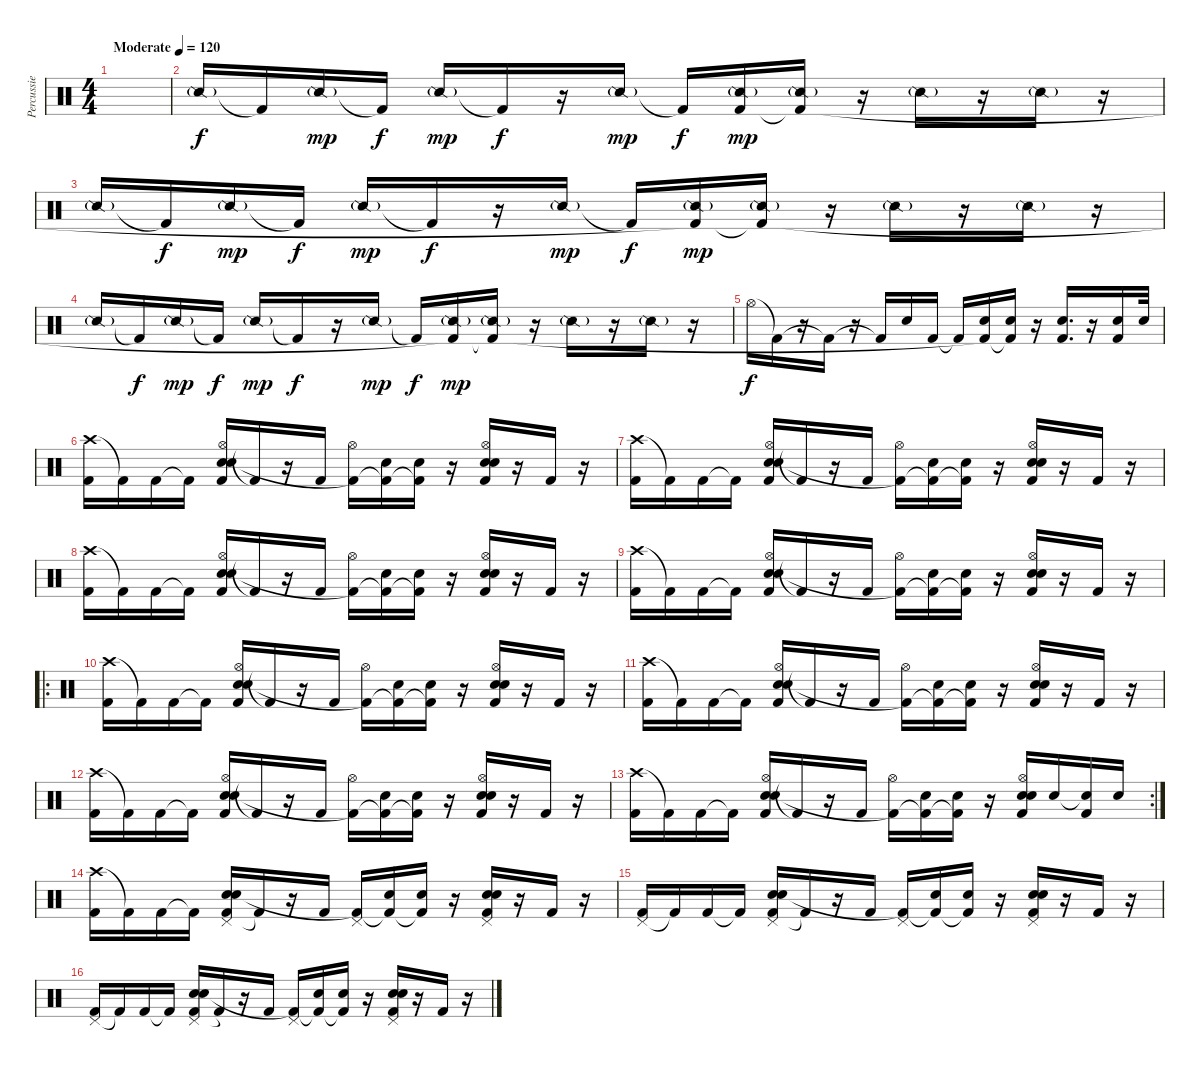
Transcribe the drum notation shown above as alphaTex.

\track ("Percussie" "Percussie") {instrument percussion}
\staff {score}
\articulation defaults
\ts (4 4)
\tempo (120 "Moderate")
\clef neutral
\ks c
|
"Snare (side stick) 2"{g}.16 "Kick (hit) 2"{t}.16{dy f} "Snare (side stick) 2"{g}.16{dy mp} "Kick (hit) 2"{t}.16{dy f} "Snare (side stick) 2"{g}.16{dy mp} "Kick (hit) 2"{t}.16{dy f} r.16 "Snare (side stick) 2"{g}.16{dy mp} "Kick (hit) 2"{t}.16{dy f} ("Snare (side stick) 2"{g} "Kick (hit) 2").16{dy mp} ("Snare (side stick) 2"{g} "Kick (hit) 2"{t}).16 r.16 "Snare (side stick) 2"{g}.16 r.16 "Snare (side stick) 2"{g}.16 r.16 |
"Snare (side stick) 2"{g}.16 "Kick (hit) 2"{t}.16{dy f} "Snare (side stick) 2"{g}.16{dy mp} "Kick (hit) 2"{t}.16{dy f} "Snare (side stick) 2"{g}.16{dy mp} "Kick (hit) 2"{t}.16{dy f} r.16 "Snare (side stick) 2"{g}.16{dy mp} "Kick (hit) 2"{t}.16{dy f} ("Snare (side stick) 2"{g} "Kick (hit) 2"{t}).16{dy mp} ("Snare (side stick) 2"{g} "Kick (hit) 2"{t}).16 r.16 "Snare (side stick) 2"{g}.16 r.16 "Snare (side stick) 2"{g}.16 r.16 |
"Snare (side stick) 2"{g}.16 "Kick (hit) 2"{t}.16{dy f} "Snare (side stick) 2"{g}.16{dy mp} "Kick (hit) 2"{t}.16{dy f} "Snare (side stick) 2"{g}.16{dy mp} "Kick (hit) 2"{t}.16{dy f} r.16 "Snare (side stick) 2"{g}.16{dy mp} "Kick (hit) 2"{t}.16{dy f} ("Snare (side stick) 2"{g} "Kick (hit) 2"{t}).16{dy mp} ("Snare (side stick) 2"{g} "Kick (hit) 2"{t}).16 r.16 "Snare (side stick) 2"{g}.16 r.16 "Snare (side stick) 2"{g}.16 r.16 |
"Hi-Hat (open)".16{dy f} "Kick (hit) 2"{t}.16 r.16 "Kick (hit) 2"{t}.16 r.16 "Kick (hit) 2"{t}.16 "Electric Snare (hit)".16 "Kick (hit) 2".16 "Kick (hit) 2"{t}.16 ("Electric Snare (hit)" "Kick (hit) 2"{t}).16 ("Electric Snare (hit)" "Kick (hit) 2"{t}).16 r.16 ("Electric Snare (hit)" "Kick (hit) 2").16{d} r.16 ("Electric Snare (hit)" "Kick (hit) 2").16 "Electric Snare (hit)".32 |
("Crash high (hit)" "Kick (hit) 2").16 "Kick (hit) 2"{t}.16 "Kick (hit) 2".16 "Kick (hit) 2"{t}.16 ("Hi-Hat (open)" "Electric Snare (hit)" "Snare (hit) 2" "Kick (hit) 2").16 "Kick (hit) 2"{t}.16 r.16 "Kick (hit) 2".16 ("Hi-Hat (open)" "Kick (hit) 2"{t}).16 ("Snare (hit) 2" "Kick (hit) 2"{t}).16 ("Snare (hit) 2" "Kick (hit) 2"{t}).16 r.16 ("Hi-Hat (open)" "Electric Snare (hit)" "Snare (hit) 2" "Kick (hit) 2").16 r.16 "Kick (hit) 2".16 r.16 |
("Crash high (hit)" "Kick (hit) 2").16 "Kick (hit) 2"{t}.16 "Kick (hit) 2".16 "Kick (hit) 2"{t}.16 ("Hi-Hat (open)" "Electric Snare (hit)" "Snare (hit) 2" "Kick (hit) 2").16 "Kick (hit) 2"{t}.16 r.16 "Kick (hit) 2".16 ("Hi-Hat (open)" "Kick (hit) 2"{t}).16 ("Snare (hit) 2" "Kick (hit) 2"{t}).16 ("Snare (hit) 2" "Kick (hit) 2"{t}).16 r.16 ("Hi-Hat (open)" "Electric Snare (hit)" "Snare (hit) 2" "Kick (hit) 2").16 r.16 "Kick (hit) 2".16 r.16 |
("Crash high (hit)" "Kick (hit) 2").16 "Kick (hit) 2"{t}.16 "Kick (hit) 2".16 "Kick (hit) 2"{t}.16 ("Hi-Hat (open)" "Electric Snare (hit)" "Snare (hit) 2" "Kick (hit) 2").16 "Kick (hit) 2"{t}.16 r.16 "Kick (hit) 2".16 ("Hi-Hat (open)" "Kick (hit) 2"{t}).16 ("Snare (hit) 2" "Kick (hit) 2"{t}).16 ("Snare (hit) 2" "Kick (hit) 2"{t}).16 r.16 ("Hi-Hat (open)" "Electric Snare (hit)" "Snare (hit) 2" "Kick (hit) 2").16 r.16 "Kick (hit) 2".16 r.16 |
("Crash high (hit)" "Kick (hit) 2").16 "Kick (hit) 2"{t}.16 "Kick (hit) 2".16 "Kick (hit) 2"{t}.16 ("Hi-Hat (open)" "Electric Snare (hit)" "Snare (hit) 2" "Kick (hit) 2").16 "Kick (hit) 2"{t}.16 r.16 "Kick (hit) 2".16 ("Hi-Hat (open)" "Kick (hit) 2"{t}).16 ("Snare (hit) 2" "Kick (hit) 2"{t}).16 ("Snare (hit) 2" "Kick (hit) 2"{t}).16 r.16 ("Hi-Hat (open)" "Electric Snare (hit)" "Snare (hit) 2" "Kick (hit) 2").16 r.16 "Kick (hit) 2".16 r.16 |
\ro
("Crash high (hit)" "Kick (hit) 2").16 "Kick (hit) 2"{t}.16 "Kick (hit) 2".16 "Kick (hit) 2"{t}.16 ("Hi-Hat (open)" "Electric Snare (hit)" "Snare (hit) 2" "Kick (hit) 2").16 "Kick (hit) 2"{t}.16 r.16 "Kick (hit) 2".16 ("Hi-Hat (open)" "Kick (hit) 2"{t}).16 ("Snare (hit) 2" "Kick (hit) 2"{t}).16 ("Snare (hit) 2" "Kick (hit) 2"{t}).16 r.16 ("Hi-Hat (open)" "Electric Snare (hit)" "Snare (hit) 2" "Kick (hit) 2").16 r.16 "Kick (hit) 2".16 r.16 |
("Crash high (hit)" "Kick (hit) 2").16 "Kick (hit) 2"{t}.16 "Kick (hit) 2".16 "Kick (hit) 2"{t}.16 ("Hi-Hat (open)" "Electric Snare (hit)" "Snare (hit) 2" "Kick (hit) 2").16 "Kick (hit) 2"{t}.16 r.16 "Kick (hit) 2".16 ("Hi-Hat (open)" "Kick (hit) 2"{t}).16 ("Snare (hit) 2" "Kick (hit) 2"{t}).16 ("Snare (hit) 2" "Kick (hit) 2"{t}).16 r.16 ("Hi-Hat (open)" "Electric Snare (hit)" "Snare (hit) 2" "Kick (hit) 2").16 r.16 "Kick (hit) 2".16 r.16 |
("Crash high (hit)" "Kick (hit) 2").16 "Kick (hit) 2"{t}.16 "Kick (hit) 2".16 "Kick (hit) 2"{t}.16 ("Hi-Hat (open)" "Electric Snare (hit)" "Snare (hit) 2" "Kick (hit) 2").16 "Kick (hit) 2"{t}.16 r.16 "Kick (hit) 2".16 ("Hi-Hat (open)" "Kick (hit) 2"{t}).16 ("Snare (hit) 2" "Kick (hit) 2"{t}).16 ("Snare (hit) 2" "Kick (hit) 2"{t}).16 r.16 ("Hi-Hat (open)" "Electric Snare (hit)" "Snare (hit) 2" "Kick (hit) 2").16 r.16 "Kick (hit) 2".16 r.16 |
\rc 2
("Crash high (hit)" "Kick (hit) 2").16 "Kick (hit) 2"{t}.16 "Kick (hit) 2".16 "Kick (hit) 2"{t}.16 ("Hi-Hat (open)" "Electric Snare (hit)" "Snare (hit) 2" "Kick (hit) 2").16 "Kick (hit) 2"{t}.16 r.16 "Kick (hit) 2".16 ("Hi-Hat (open)" "Kick (hit) 2"{t}).16 ("Snare (hit) 2" "Kick (hit) 2"{t}).16 ("Snare (hit) 2" "Kick (hit) 2"{t}).16 r.16 ("Hi-Hat (open)" "Electric Snare (hit)" "Snare (hit) 2" "Kick (hit) 2").16 "Snare (hit) 2".16 ("Snare (hit) 2"{t} "Kick (hit) 2").16 "Snare (hit) 2".16 |
("Crash high (hit)" "Kick (hit) 2").16 "Kick (hit) 2"{t}.16 "Kick (hit) 2".16 "Kick (hit) 2"{t}.16 ("Pedal Hi-Hat (hit)" "Electric Snare (hit)" "Snare (hit) 2" "Kick (hit) 2").16 "Kick (hit) 2"{t}.16 r.16 "Kick (hit) 2".16 ("Pedal Hi-Hat (hit)" "Kick (hit) 2"{t}).16 ("Snare (hit) 2" "Kick (hit) 2"{t}).16 ("Snare (hit) 2" "Kick (hit) 2"{t}).16 r.16 ("Pedal Hi-Hat (hit)" "Electric Snare (hit)" "Snare (hit) 2" "Kick (hit) 2").16 r.16 "Kick (hit) 2".16 r.16 |
("Pedal Hi-Hat (hit)" "Kick (hit) 2").16 "Kick (hit) 2"{t}.16 "Kick (hit) 2".16 "Kick (hit) 2"{t}.16 ("Pedal Hi-Hat (hit)" "Electric Snare (hit)" "Snare (hit) 2" "Kick (hit) 2").16 "Kick (hit) 2"{t}.16 r.16 "Kick (hit) 2".16 ("Pedal Hi-Hat (hit)" "Kick (hit) 2"{t}).16 ("Snare (hit) 2" "Kick (hit) 2"{t}).16 ("Snare (hit) 2" "Kick (hit) 2"{t}).16 r.16 ("Pedal Hi-Hat (hit)" "Electric Snare (hit)" "Snare (hit) 2" "Kick (hit) 2").16 r.16 "Kick (hit) 2".16 r.16 |
("Pedal Hi-Hat (hit)" "Kick (hit) 2").16 "Kick (hit) 2"{t}.16 "Kick (hit) 2".16 "Kick (hit) 2"{t}.16 ("Pedal Hi-Hat (hit)" "Electric Snare (hit)" "Snare (hit) 2" "Kick (hit) 2").16 "Kick (hit) 2"{t}.16 r.16 "Kick (hit) 2".16 ("Pedal Hi-Hat (hit)" "Kick (hit) 2"{t}).16 ("Snare (hit) 2" "Kick (hit) 2"{t}).16 ("Snare (hit) 2" "Kick (hit) 2"{t}).16 r.16 ("Pedal Hi-Hat (hit)" "Electric Snare (hit)" "Snare (hit) 2" "Kick (hit) 2").16 r.16 "Kick (hit) 2".16 r.16
